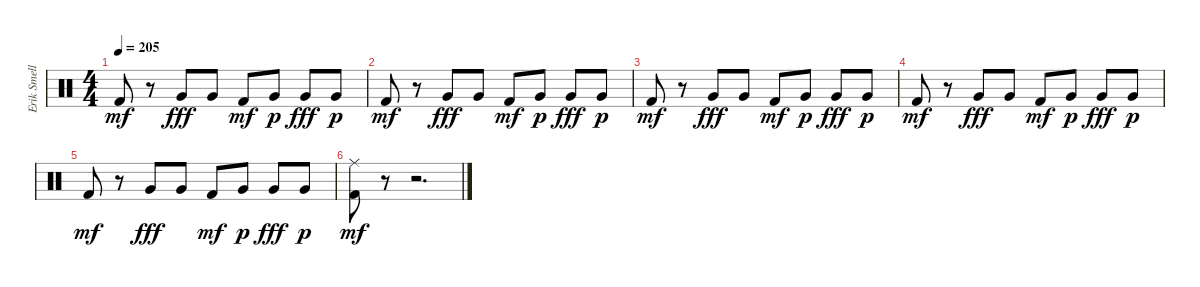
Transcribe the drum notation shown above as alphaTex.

\track ("Erik Smelly" "Erik Smell") {instrument percussion}
\staff {score}
\articulation defaults
\ts (4 4)
\tempo 205
\clef neutral
\ks c "Kick (hit) 2".8{dy mf}
r.8 "Very Low Tom (hit)".8{dy fff} "Very Low Tom (hit)".8 "Kick (hit) 2".8{dy mf} "Very Low Tom (hit)".8{dy p} "Very Low Tom (hit)".8{dy fff} "Very Low Tom (hit)".8{dy p} |
"Kick (hit) 2".8{dy mf} r.8 "Very Low Tom (hit)".8{dy fff} "Very Low Tom (hit)".8 "Kick (hit) 2".8{dy mf} "Very Low Tom (hit)".8{dy p} "Very Low Tom (hit)".8{dy fff} "Very Low Tom (hit)".8{dy p} |
"Kick (hit) 2".8{dy mf} r.8 "Very Low Tom (hit)".8{dy fff} "Very Low Tom (hit)".8 "Kick (hit) 2".8{dy mf} "Very Low Tom (hit)".8{dy p} "Very Low Tom (hit)".8{dy fff} "Very Low Tom (hit)".8{dy p} |
"Kick (hit) 2".8{dy mf} r.8 "Very Low Tom (hit)".8{dy fff} "Very Low Tom (hit)".8 "Kick (hit) 2".8{dy mf} "Very Low Tom (hit)".8{dy p} "Very Low Tom (hit)".8{dy fff} "Very Low Tom (hit)".8{dy p} |
"Kick (hit) 2".8{dy mf} r.8 "Very Low Tom (hit)".8{dy fff} "Very Low Tom (hit)".8 "Kick (hit) 2".8{dy mf} "Very Low Tom (hit)".8{dy p} "Very Low Tom (hit)".8{dy fff} "Very Low Tom (hit)".8{dy p} |
("Ride (middle)" "Kick (hit) 2").8{dy mf} r.8 r.2{d}
